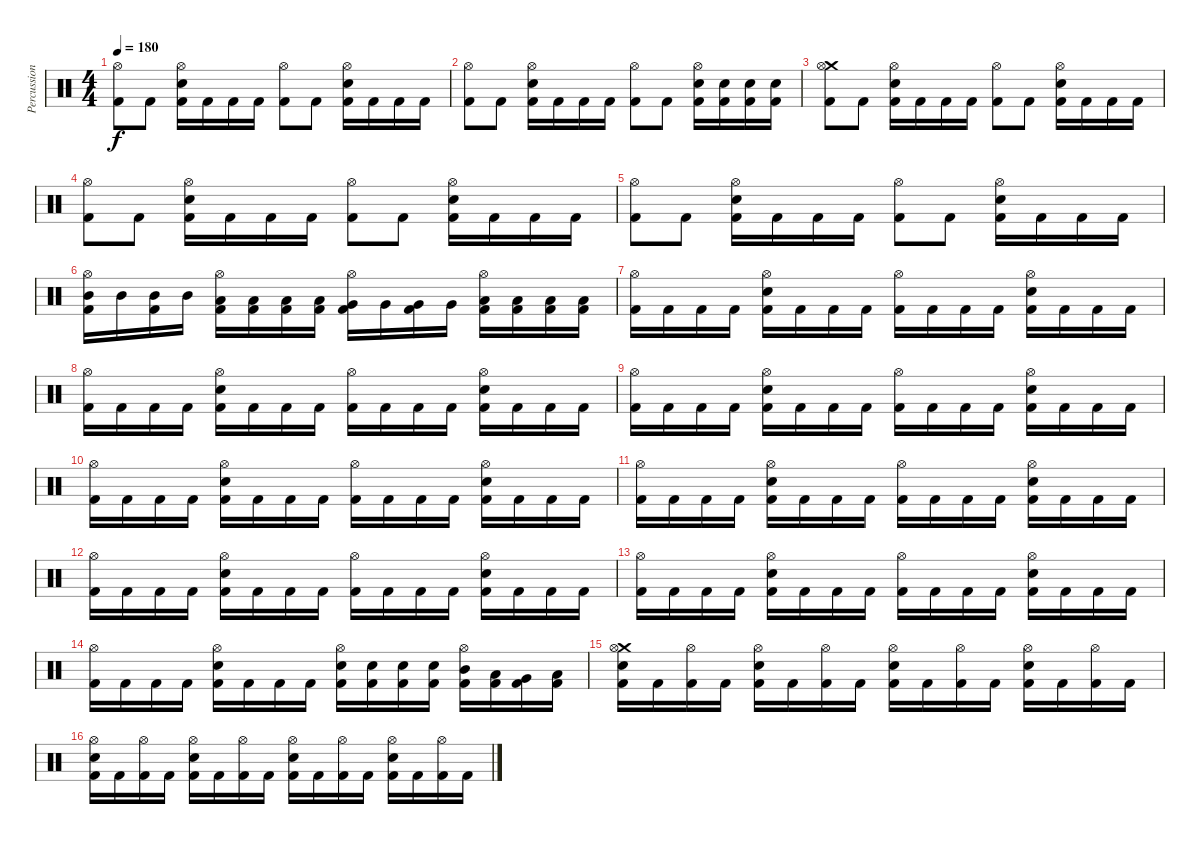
\track ("Percussion" "Percussion") {instrument percussion}
\staff {score}
\articulation defaults
\ts (4 4)
\tempo 180
\clef neutral
\ks c
("Hi-Hat (open)" "Kick (hit) 2").8{dy f} "Kick (hit) 2".8 ("Hi-Hat (open)" "Electric Snare (hit)" "Kick (hit) 2").16 "Kick (hit) 2".16 "Kick (hit) 2".16 "Kick (hit) 2".16 ("Hi-Hat (open)" "Kick (hit) 2").8 "Kick (hit) 2".8 ("Hi-Hat (open)" "Electric Snare (hit)" "Kick (hit) 2").16 "Kick (hit) 2".16 "Kick (hit) 2".16 "Kick (hit) 2".16 |
("Hi-Hat (open)" "Kick (hit) 2").8 "Kick (hit) 2".8 ("Hi-Hat (open)" "Electric Snare (hit)" "Kick (hit) 2").16 "Kick (hit) 2".16 "Kick (hit) 2".16 "Kick (hit) 2".16 ("Hi-Hat (open)" "Kick (hit) 2").8 "Kick (hit) 2".8 ("Hi-Hat (open)" "Electric Snare (hit)" "Kick (hit) 2").16 ("Electric Snare (hit)" "Kick (hit) 2").16 ("Electric Snare (hit)" "Kick (hit) 2").16 ("Electric Snare (hit)" "Kick (hit) 2").16 |
("Crash medium (hit)" "Hi-Hat (open)" "Kick (hit) 2").8 "Kick (hit) 2".8 ("Hi-Hat (open)" "Electric Snare (hit)" "Kick (hit) 2").16 "Kick (hit) 2".16 "Kick (hit) 2".16 "Kick (hit) 2".16 ("Hi-Hat (open)" "Kick (hit) 2").8 "Kick (hit) 2".8 ("Hi-Hat (open)" "Electric Snare (hit)" "Kick (hit) 2").16 "Kick (hit) 2".16 "Kick (hit) 2".16 "Kick (hit) 2".16 |
("Hi-Hat (open)" "Kick (hit) 2").8 "Kick (hit) 2".8 ("Hi-Hat (open)" "Electric Snare (hit)" "Kick (hit) 2").16 "Kick (hit) 2".16 "Kick (hit) 2".16 "Kick (hit) 2".16 ("Hi-Hat (open)" "Kick (hit) 2").8 "Kick (hit) 2".8 ("Hi-Hat (open)" "Electric Snare (hit)" "Kick (hit) 2").16 "Kick (hit) 2".16 "Kick (hit) 2".16 "Kick (hit) 2".16 |
("Hi-Hat (open)" "Kick (hit) 2").8 "Kick (hit) 2".8 ("Hi-Hat (open)" "Electric Snare (hit)" "Kick (hit) 2").16 "Kick (hit) 2".16 "Kick (hit) 2".16 "Kick (hit) 2".16 ("Hi-Hat (open)" "Kick (hit) 2").8 "Kick (hit) 2".8 ("Hi-Hat (open)" "Electric Snare (hit)" "Kick (hit) 2").16 "Kick (hit) 2".16 "Kick (hit) 2".16 "Kick (hit) 2".16 |
("Hi-Hat (open)" "Mid Tom (hit)" "Kick (hit) 2").16 "Mid Tom (hit)".16 ("Mid Tom (hit)" "Kick (hit) 2").16 "Mid Tom (hit)".16 ("Hi-Hat (open)" "Low Tom (hit)" "Kick (hit) 2").16 ("Low Tom (hit)" "Kick (hit) 2").16 ("Low Tom (hit)" "Kick (hit) 2").16 ("Low Tom (hit)" "Kick (hit) 2").16 ("Hi-Hat (open)" "Very Low Tom (hit)" "Kick (hit) 2").16 "Very Low Tom (hit)".16 ("Very Low Tom (hit)" "Kick (hit) 2").16 "Very Low Tom (hit)".16 ("Hi-Hat (open)" "Low Floor Tom (hit)" "Kick (hit) 2").16 ("Low Floor Tom (hit)" "Kick (hit) 2").16 ("Low Floor Tom (hit)" "Kick (hit) 2").16 ("Low Floor Tom (hit)" "Kick (hit) 2").16 |
("Hi-Hat (open)" "Kick (hit) 2").16 "Kick (hit) 2".16 "Kick (hit) 2".16 "Kick (hit) 2".16 ("Hi-Hat (open)" "Electric Snare (hit)" "Kick (hit) 2").16 "Kick (hit) 2".16 "Kick (hit) 2".16 "Kick (hit) 2".16 ("Hi-Hat (open)" "Kick (hit) 2").16 "Kick (hit) 2".16 "Kick (hit) 2".16 "Kick (hit) 2".16 ("Hi-Hat (open)" "Electric Snare (hit)" "Kick (hit) 2").16 "Kick (hit) 2".16 "Kick (hit) 2".16 "Kick (hit) 2".16 |
("Hi-Hat (open)" "Kick (hit) 2").16 "Kick (hit) 2".16 "Kick (hit) 2".16 "Kick (hit) 2".16 ("Hi-Hat (open)" "Electric Snare (hit)" "Kick (hit) 2").16 "Kick (hit) 2".16 "Kick (hit) 2".16 "Kick (hit) 2".16 ("Hi-Hat (open)" "Kick (hit) 2").16 "Kick (hit) 2".16 "Kick (hit) 2".16 "Kick (hit) 2".16 ("Hi-Hat (open)" "Electric Snare (hit)" "Kick (hit) 2").16 "Kick (hit) 2".16 "Kick (hit) 2".16 "Kick (hit) 2".16 |
("Hi-Hat (open)" "Kick (hit) 2").16 "Kick (hit) 2".16 "Kick (hit) 2".16 "Kick (hit) 2".16 ("Hi-Hat (open)" "Electric Snare (hit)" "Kick (hit) 2").16 "Kick (hit) 2".16 "Kick (hit) 2".16 "Kick (hit) 2".16 ("Hi-Hat (open)" "Kick (hit) 2").16 "Kick (hit) 2".16 "Kick (hit) 2".16 "Kick (hit) 2".16 ("Hi-Hat (open)" "Electric Snare (hit)" "Kick (hit) 2").16 "Kick (hit) 2".16 "Kick (hit) 2".16 "Kick (hit) 2".16 |
("Hi-Hat (open)" "Kick (hit) 2").16 "Kick (hit) 2".16 "Kick (hit) 2".16 "Kick (hit) 2".16 ("Hi-Hat (open)" "Electric Snare (hit)" "Kick (hit) 2").16 "Kick (hit) 2".16 "Kick (hit) 2".16 "Kick (hit) 2".16 ("Hi-Hat (open)" "Kick (hit) 2").16 "Kick (hit) 2".16 "Kick (hit) 2".16 "Kick (hit) 2".16 ("Hi-Hat (open)" "Electric Snare (hit)" "Kick (hit) 2").16 "Kick (hit) 2".16 "Kick (hit) 2".16 "Kick (hit) 2".16 |
("Hi-Hat (open)" "Kick (hit) 2").16 "Kick (hit) 2".16 "Kick (hit) 2".16 "Kick (hit) 2".16 ("Hi-Hat (open)" "Electric Snare (hit)" "Kick (hit) 2").16 "Kick (hit) 2".16 "Kick (hit) 2".16 "Kick (hit) 2".16 ("Hi-Hat (open)" "Kick (hit) 2").16 "Kick (hit) 2".16 "Kick (hit) 2".16 "Kick (hit) 2".16 ("Hi-Hat (open)" "Electric Snare (hit)" "Kick (hit) 2").16 "Kick (hit) 2".16 "Kick (hit) 2".16 "Kick (hit) 2".16 |
("Hi-Hat (open)" "Kick (hit) 2").16 "Kick (hit) 2".16 "Kick (hit) 2".16 "Kick (hit) 2".16 ("Hi-Hat (open)" "Electric Snare (hit)" "Kick (hit) 2").16 "Kick (hit) 2".16 "Kick (hit) 2".16 "Kick (hit) 2".16 ("Hi-Hat (open)" "Kick (hit) 2").16 "Kick (hit) 2".16 "Kick (hit) 2".16 "Kick (hit) 2".16 ("Hi-Hat (open)" "Electric Snare (hit)" "Kick (hit) 2").16 "Kick (hit) 2".16 "Kick (hit) 2".16 "Kick (hit) 2".16 |
("Hi-Hat (open)" "Kick (hit) 2").16 "Kick (hit) 2".16 "Kick (hit) 2".16 "Kick (hit) 2".16 ("Hi-Hat (open)" "Electric Snare (hit)" "Kick (hit) 2").16 "Kick (hit) 2".16 "Kick (hit) 2".16 "Kick (hit) 2".16 ("Hi-Hat (open)" "Kick (hit) 2").16 "Kick (hit) 2".16 "Kick (hit) 2".16 "Kick (hit) 2".16 ("Hi-Hat (open)" "Electric Snare (hit)" "Kick (hit) 2").16 "Kick (hit) 2".16 "Kick (hit) 2".16 "Kick (hit) 2".16 |
("Hi-Hat (open)" "Kick (hit) 2").16 "Kick (hit) 2".16 "Kick (hit) 2".16 "Kick (hit) 2".16 ("Hi-Hat (open)" "Electric Snare (hit)" "Kick (hit) 2").16 "Kick (hit) 2".16 "Kick (hit) 2".16 "Kick (hit) 2".16 ("Hi-Hat (open)" "Electric Snare (hit)" "Kick (hit) 2").16 ("Electric Snare (hit)" "Kick (hit) 2").16 ("Electric Snare (hit)" "Kick (hit) 2").16 ("Electric Snare (hit)" "Kick (hit) 2").16 ("Hi-Hat (open)" "Mid Tom (hit)" "Kick (hit) 2").16 ("Low Tom (hit)" "Kick (hit) 2").16 ("Very Low Tom (hit)" "Kick (hit) 2").16 ("Low Floor Tom (hit)" "Kick (hit) 2").16 |
("Crash medium (hit)" "Hi-Hat (open)" "Electric Snare (hit)" "Kick (hit) 2").16 "Kick (hit) 2".16 ("Hi-Hat (open)" "Kick (hit) 2").16 "Kick (hit) 2".16 ("Hi-Hat (open)" "Electric Snare (hit)" "Kick (hit) 2").16 "Kick (hit) 2".16 ("Hi-Hat (open)" "Kick (hit) 2").16 "Kick (hit) 2".16 ("Hi-Hat (open)" "Electric Snare (hit)" "Kick (hit) 2").16 "Kick (hit) 2".16 ("Hi-Hat (open)" "Kick (hit) 2").16 "Kick (hit) 2".16 ("Hi-Hat (open)" "Electric Snare (hit)" "Kick (hit) 2").16 "Kick (hit) 2".16 ("Hi-Hat (open)" "Kick (hit) 2").16 "Kick (hit) 2".16 |
("Hi-Hat (open)" "Electric Snare (hit)" "Kick (hit) 2").16 "Kick (hit) 2".16 ("Hi-Hat (open)" "Kick (hit) 2").16 "Kick (hit) 2".16 ("Hi-Hat (open)" "Electric Snare (hit)" "Kick (hit) 2").16 "Kick (hit) 2".16 ("Hi-Hat (open)" "Kick (hit) 2").16 "Kick (hit) 2".16 ("Hi-Hat (open)" "Electric Snare (hit)" "Kick (hit) 2").16 "Kick (hit) 2".16 ("Hi-Hat (open)" "Kick (hit) 2").16 "Kick (hit) 2".16 ("Hi-Hat (open)" "Electric Snare (hit)" "Kick (hit) 2").16 "Kick (hit) 2".16 ("Hi-Hat (open)" "Kick (hit) 2").16 "Kick (hit) 2".16
